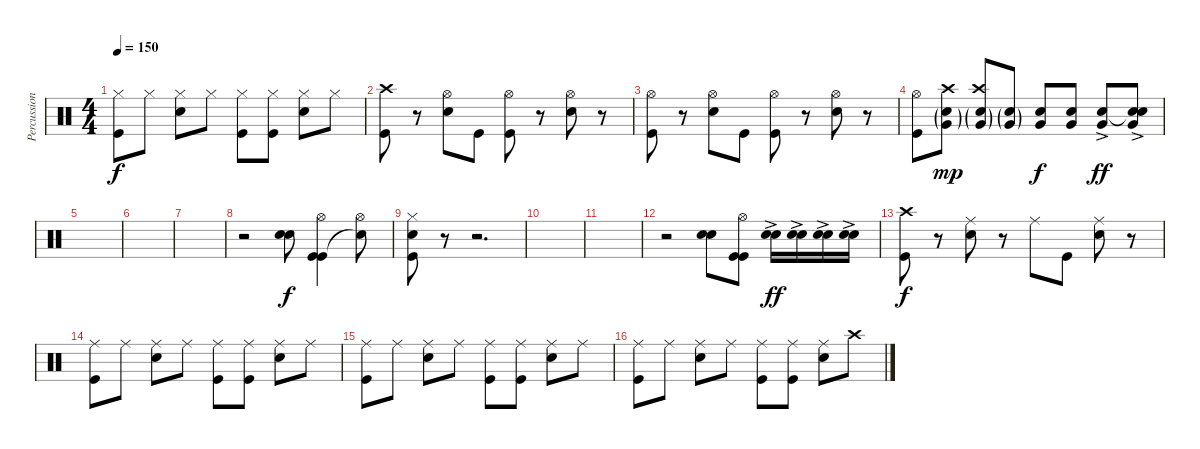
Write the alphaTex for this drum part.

\track ("Percussion" "Percussion") {instrument percussion}
\staff {score}
\articulation defaults
\ts (4 4)
\tempo 150
\clef neutral
\ks c
("Hi-Hat (closed)" "Kick (hit)").8{dy f} "Hi-Hat (closed)".8 ("Hi-Hat (closed)" "Snare (hit) 2").8 "Hi-Hat (closed)".8 ("Hi-Hat (closed)" "Kick (hit)").8 ("Hi-Hat (closed)" "Kick (hit)").8 ("Hi-Hat (closed)" "Snare (hit) 2").8 "Hi-Hat (closed)".8 |
("Crash high (hit)" "Kick (hit)").8 r.8 ("Hi-Hat (open)" "Snare (hit) 2").8 "Kick (hit)".8 ("Hi-Hat (open)" "Kick (hit)").8 r.8 ("Hi-Hat (open)" "Snare (hit) 2").8 r.8 |
("Hi-Hat (open)" "Kick (hit)").8 r.8 ("Hi-Hat (open)" "Snare (hit) 2").8 "Kick (hit)".8 ("Hi-Hat (open)" "Kick (hit)").8 r.8 ("Hi-Hat (open)" "Snare (hit) 2").8 r.8 |
("Hi-Hat (open)" "Kick (hit)").8 ("Crash high (hit)" "Snare (hit) 2"{g} "Very Low Tom (hit)"{g}).8{dy mp} ("Crash high (hit)" "Snare (hit) 2"{g} "Very Low Tom (hit)"{g}).8 ("Snare (hit) 2"{g} "Very Low Tom (hit)"{g}).8 ("Snare (hit) 2" "Very Low Tom (hit)").8{dy f} ("Snare (hit) 2" "Very Low Tom (hit)").8 ("Snare (hit) 2"{ac} "Very Low Tom (hit)").8{dy ff} ("Snare (hit)"{t} "Snare (hit) 2"{ac} "Very Low Tom (hit)").8 |
|
|
|
r.2 ("Snare (hit) 2" "Snare (hit) 2").8{dy f} ("Hi-Hat (open)" "Kick (hit)" "Kick (hit)").4 ("Hi-Hat (open)" "Snare (hit)"{t}).8 |
("Hi-Hat (closed)" "Snare (hit) 2" "Kick (hit)").8 r.8 r.2{d} |
|
|
r.2 ("Snare (hit) 2" "Snare (hit) 2").8 ("Hi-Hat (open)" "Kick (hit)" "Kick (hit)").8 ("Snare (hit) 2"{ac} "Snare (hit) 2").16{dy ff} ("Snare (hit) 2"{ac} "Snare (hit) 2").16 ("Snare (hit) 2"{ac} "Snare (hit) 2").16 ("Snare (hit) 2"{ac} "Snare (hit) 2").16 |
("Crash high (hit)" "Kick (hit)").8{dy f} r.8 ("Ride (middle)" "Snare (hit) 2").8 r.8 "Ride (middle)".8 "Kick (hit)".8 ("Ride (middle)" "Snare (hit) 2").8 r.8 |
("Ride (middle)" "Kick (hit)").8 "Ride (middle)".8 ("Ride (middle)" "Snare (hit) 2").8 "Ride (middle)".8 ("Ride (middle)" "Kick (hit)").8 ("Ride (middle)" "Kick (hit)").8 ("Ride (middle)" "Snare (hit) 2").8 "Ride (middle)".8 |
("Ride (middle)" "Kick (hit)").8 "Ride (middle)".8 ("Ride (middle)" "Snare (hit) 2").8 "Ride (middle)".8 ("Ride (middle)" "Kick (hit)").8 ("Ride (middle)" "Kick (hit)").8 ("Ride (middle)" "Snare (hit) 2").8 "Ride (middle)".8 |
("Ride (middle)" "Kick (hit)").8 "Ride (middle)".8 ("Ride (middle)" "Snare (hit) 2").8 "Ride (middle)".8 ("Ride (middle)" "Kick (hit)").8 ("Ride (middle)" "Kick (hit)").8 ("Ride (middle)" "Snare (hit) 2").8 "Crash high (hit)".8
